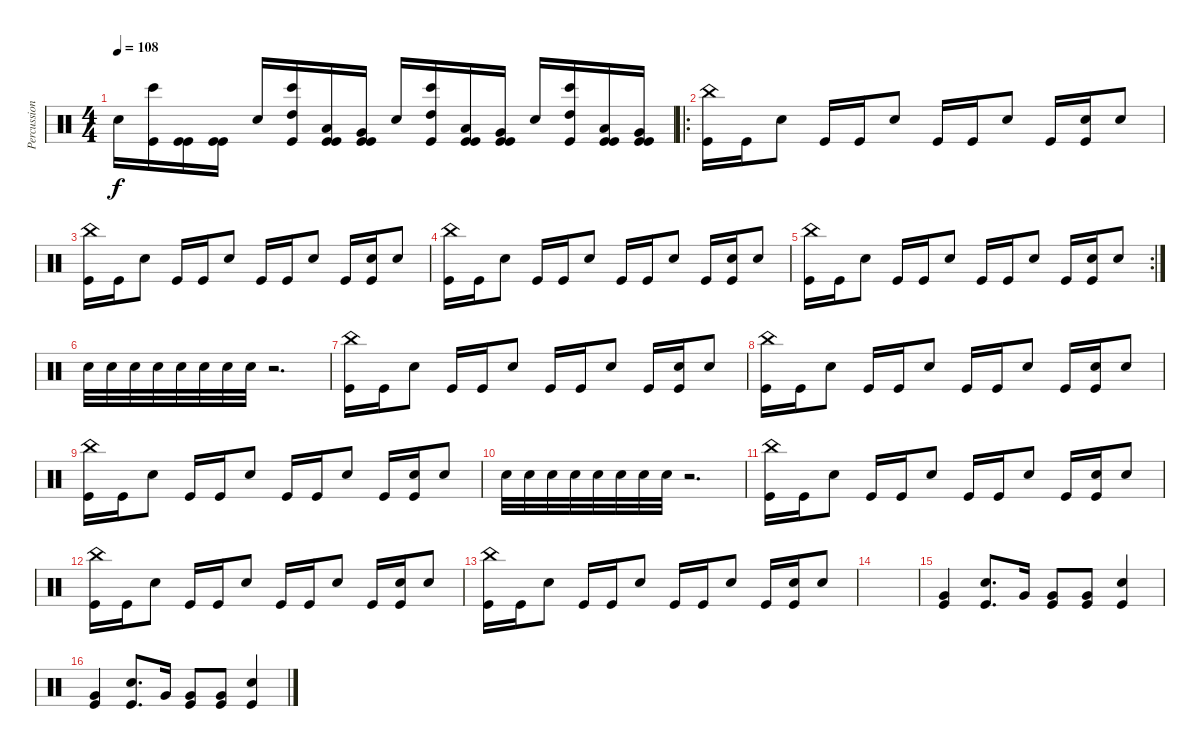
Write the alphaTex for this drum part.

\track ("Percussion" "Percussion") {instrument percussion}
\staff {score}
\articulation defaults
\ts (4 4)
\tempo 108
\clef neutral
\ks c "Snare (hit) 2".16{dy f}
("Kick (hit)" "Bongo High (hit)").16 ("Kick (hit)" "Kick (hit)").16 ("Kick (hit)" "Kick (hit)").16 "Snare (hit) 2".16 ("High Tom (hit)" "Kick (hit)" "Bongo High (hit)").16 ("Low Tom (hit)" "Kick (hit)" "Kick (hit)").16 ("Very Low Tom (hit)" "Kick (hit)" "Kick (hit)").16 "Snare (hit) 2".16 ("High Tom (hit)" "Kick (hit)" "Bongo High (hit)").16 ("Low Tom (hit)" "Kick (hit)" "Kick (hit)").16 ("Very Low Tom (hit)" "Kick (hit)" "Kick (hit)").16 "Snare (hit) 2".16 ("High Tom (hit)" "Kick (hit)" "Bongo High (hit)").16 ("Low Tom (hit)" "Kick (hit)" "Kick (hit)").16 ("Very Low Tom (hit)" "Kick (hit)" "Kick (hit)").16 |
\ro
("China (hit)" "Kick (hit)").16 "Kick (hit)".16 "Electric Snare (hit)".8 "Kick (hit)".16 "Kick (hit)".16 "Electric Snare (hit)".8 "Kick (hit)".16 "Kick (hit)".16 "Electric Snare (hit)".8 "Kick (hit)".16 ("Electric Snare (hit)" "Kick (hit)").16 "Electric Snare (hit)".8 |
("China (hit)" "Kick (hit)").16 "Kick (hit)".16 "Electric Snare (hit)".8 "Kick (hit)".16 "Kick (hit)".16 "Electric Snare (hit)".8 "Kick (hit)".16 "Kick (hit)".16 "Electric Snare (hit)".8 "Kick (hit)".16 ("Electric Snare (hit)" "Kick (hit)").16 "Electric Snare (hit)".8 |
("China (hit)" "Kick (hit)").16 "Kick (hit)".16 "Electric Snare (hit)".8 "Kick (hit)".16 "Kick (hit)".16 "Electric Snare (hit)".8 "Kick (hit)".16 "Kick (hit)".16 "Electric Snare (hit)".8 "Kick (hit)".16 ("Electric Snare (hit)" "Kick (hit)").16 "Electric Snare (hit)".8 |
\rc 2
("China (hit)" "Kick (hit)").16 "Kick (hit)".16 "Electric Snare (hit)".8 "Kick (hit)".16 "Kick (hit)".16 "Electric Snare (hit)".8 "Kick (hit)".16 "Kick (hit)".16 "Electric Snare (hit)".8 "Kick (hit)".16 ("Electric Snare (hit)" "Kick (hit)").16 "Electric Snare (hit)".8 |
"Snare (hit) 2".32 "Snare (hit) 2".32 "Snare (hit) 2".32 "Snare (hit) 2".32 "Snare (hit) 2".32 "Snare (hit) 2".32 "Snare (hit) 2".32 "Snare (hit) 2".32 r.2{d} |
("China (hit)" "Kick (hit)").16 "Kick (hit)".16 "Electric Snare (hit)".8 "Kick (hit)".16 "Kick (hit)".16 "Electric Snare (hit)".8 "Kick (hit)".16 "Kick (hit)".16 "Electric Snare (hit)".8 "Kick (hit)".16 ("Electric Snare (hit)" "Kick (hit)").16 "Electric Snare (hit)".8 |
("China (hit)" "Kick (hit)").16 "Kick (hit)".16 "Electric Snare (hit)".8 "Kick (hit)".16 "Kick (hit)".16 "Electric Snare (hit)".8 "Kick (hit)".16 "Kick (hit)".16 "Electric Snare (hit)".8 "Kick (hit)".16 ("Electric Snare (hit)" "Kick (hit)").16 "Electric Snare (hit)".8 |
("China (hit)" "Kick (hit)").16 "Kick (hit)".16 "Electric Snare (hit)".8 "Kick (hit)".16 "Kick (hit)".16 "Electric Snare (hit)".8 "Kick (hit)".16 "Kick (hit)".16 "Electric Snare (hit)".8 "Kick (hit)".16 ("Electric Snare (hit)" "Kick (hit)").16 "Electric Snare (hit)".8 |
"Snare (hit) 2".32 "Snare (hit) 2".32 "Snare (hit) 2".32 "Snare (hit) 2".32 "Snare (hit) 2".32 "Snare (hit) 2".32 "Snare (hit) 2".32 "Snare (hit) 2".32 r.2{d} |
("China (hit)" "Kick (hit)").16 "Kick (hit)".16 "Electric Snare (hit)".8 "Kick (hit)".16 "Kick (hit)".16 "Electric Snare (hit)".8 "Kick (hit)".16 "Kick (hit)".16 "Electric Snare (hit)".8 "Kick (hit)".16 ("Electric Snare (hit)" "Kick (hit)").16 "Electric Snare (hit)".8 |
("China (hit)" "Kick (hit)").16 "Kick (hit)".16 "Electric Snare (hit)".8 "Kick (hit)".16 "Kick (hit)".16 "Electric Snare (hit)".8 "Kick (hit)".16 "Kick (hit)".16 "Electric Snare (hit)".8 "Kick (hit)".16 ("Electric Snare (hit)" "Kick (hit)").16 "Electric Snare (hit)".8 |
("China (hit)" "Kick (hit)").16 "Kick (hit)".16 "Electric Snare (hit)".8 "Kick (hit)".16 "Kick (hit)".16 "Electric Snare (hit)".8 "Kick (hit)".16 "Kick (hit)".16 "Electric Snare (hit)".8 "Kick (hit)".16 ("Electric Snare (hit)" "Kick (hit)").16 "Electric Snare (hit)".8 |
|
("Very Low Tom (hit)" "Kick (hit)").4 ("Snare (hit) 2" "Kick (hit)").8{d} "Very Low Tom (hit)".16 ("Very Low Tom (hit)" "Kick (hit)").8 ("Very Low Tom (hit)" "Kick (hit)").8 ("Snare (hit) 2" "Kick (hit)").4 |
("Very Low Tom (hit)" "Kick (hit)").4 ("Snare (hit) 2" "Kick (hit)").8{d} "Very Low Tom (hit)".16 ("Very Low Tom (hit)" "Kick (hit)").8 ("Very Low Tom (hit)" "Kick (hit)").8 ("Snare (hit) 2" "Kick (hit)").4
